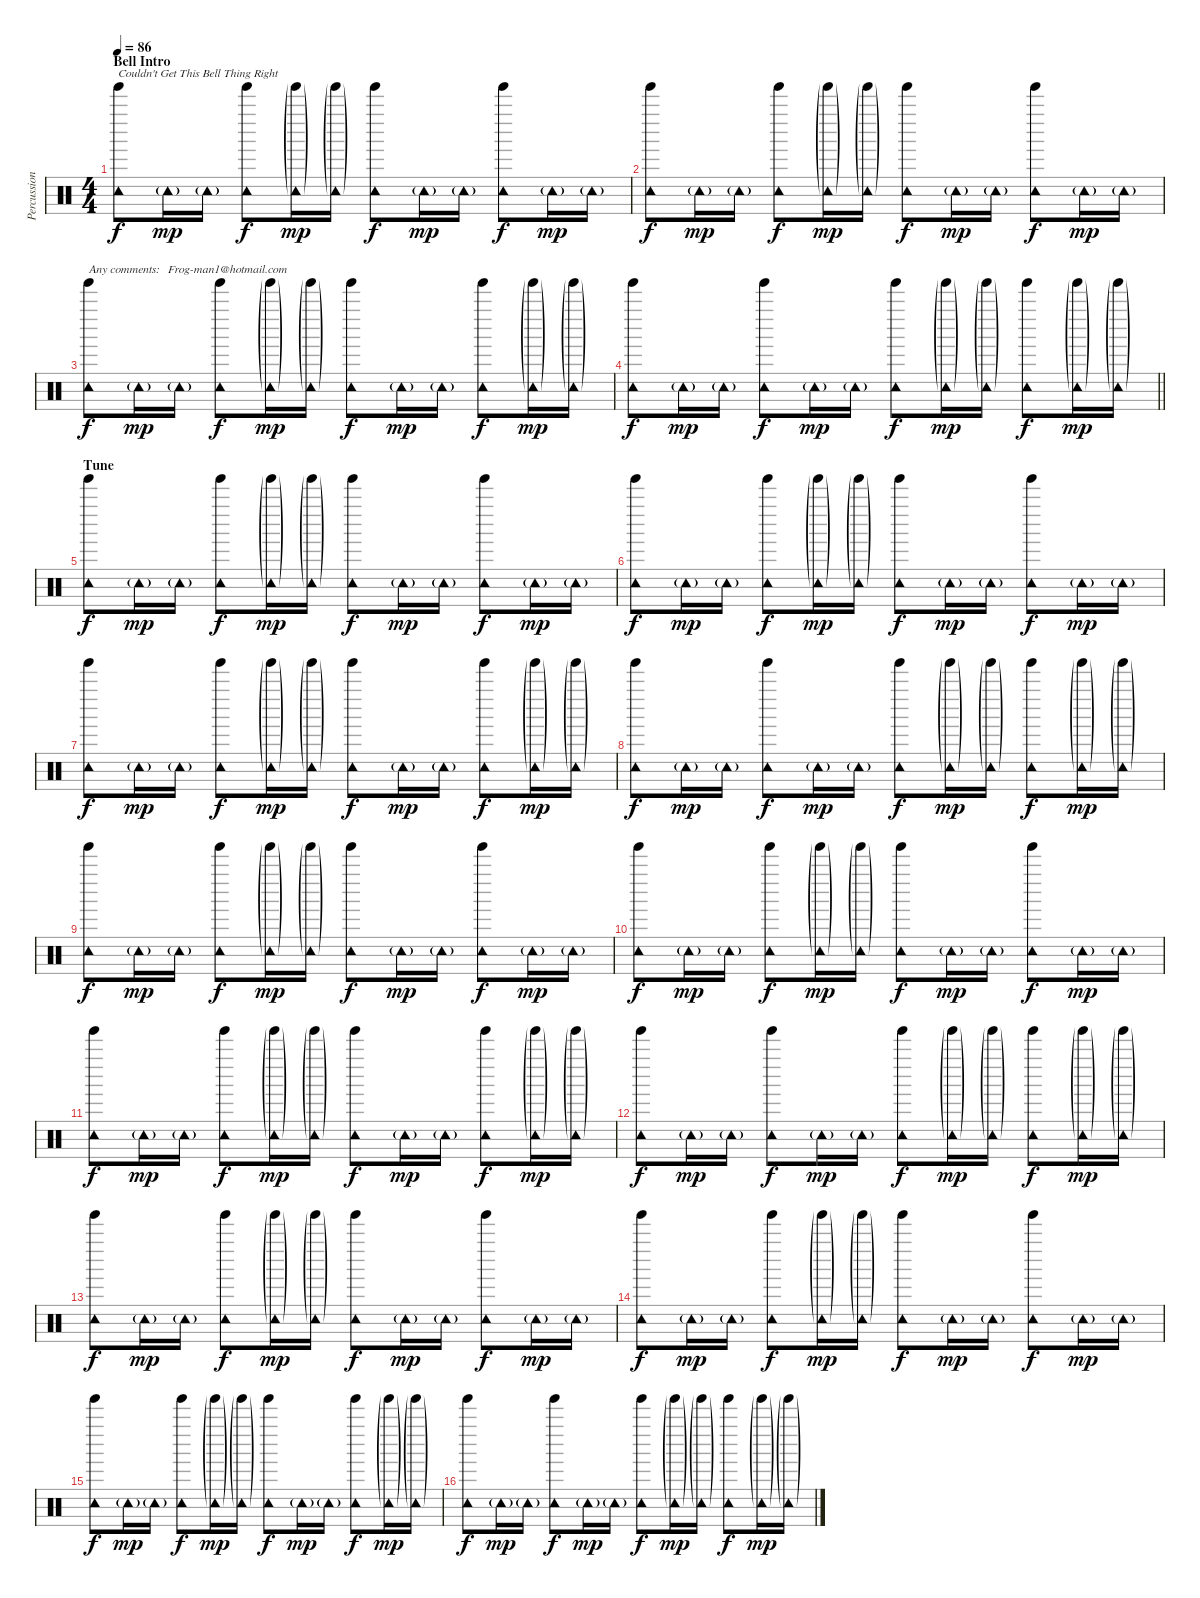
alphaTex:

\track ("Percussion 1" "Percussion") {instrument percussion}
\staff {score}
\articulation defaults
\ts (4 4)
\section ("" "Bell Intro")
\tempo 86
\clef neutral
\ks c
("Tinkle Bell (hit)" "Tambourine (hit)").8{txt "Couldn't Get This Bell Thing Right" dy f} "Tambourine (hit)"{g}.16{dy mp} "Tambourine (hit)"{g}.16 ("Tinkle Bell (hit)" "Tambourine (hit)").8{dy f} ("Tinkle Bell (hit)"{g} "Tambourine (hit)"{g}).16{dy mp} ("Tinkle Bell (hit)"{g} "Tambourine (hit)"{g}).16 ("Tinkle Bell (hit)" "Tambourine (hit)").8{dy f} "Tambourine (hit)"{g}.16{dy mp} "Tambourine (hit)"{g}.16 ("Tinkle Bell (hit)" "Tambourine (hit)").8{dy f} "Tambourine (hit)"{g}.16{dy mp} "Tambourine (hit)"{g}.16 |
("Tinkle Bell (hit)" "Tambourine (hit)").8{dy f} "Tambourine (hit)"{g}.16{dy mp} "Tambourine (hit)"{g}.16 ("Tinkle Bell (hit)" "Tambourine (hit)").8{dy f} ("Tinkle Bell (hit)"{g} "Tambourine (hit)"{g}).16{dy mp} ("Tinkle Bell (hit)"{g} "Tambourine (hit)"{g}).16 ("Tinkle Bell (hit)" "Tambourine (hit)").8{dy f} "Tambourine (hit)"{g}.16{dy mp} "Tambourine (hit)"{g}.16 ("Tinkle Bell (hit)" "Tambourine (hit)").8{dy f} "Tambourine (hit)"{g}.16{dy mp} "Tambourine (hit)"{g}.16 |
("Tinkle Bell (hit)" "Tambourine (hit)").8{txt "Any comments:   Frog-man1@hotmail.com" dy f} "Tambourine (hit)"{g}.16{dy mp} "Tambourine (hit)"{g}.16 ("Tinkle Bell (hit)" "Tambourine (hit)").8{dy f} ("Tinkle Bell (hit)"{g} "Tambourine (hit)"{g}).16{dy mp} ("Tinkle Bell (hit)"{g} "Tambourine (hit)"{g}).16 ("Tinkle Bell (hit)" "Tambourine (hit)").8{dy f} "Tambourine (hit)"{g}.16{dy mp} "Tambourine (hit)"{g}.16 ("Tinkle Bell (hit)" "Tambourine (hit)").8{dy f} ("Tinkle Bell (hit)"{g} "Tambourine (hit)"{g}).16{dy mp} ("Tinkle Bell (hit)"{g} "Tambourine (hit)"{g}).16 |
\barLineRight lightlight
("Tinkle Bell (hit)" "Tambourine (hit)").8{dy f} "Tambourine (hit)"{g}.16{dy mp} "Tambourine (hit)"{g}.16 ("Tinkle Bell (hit)" "Tambourine (hit)").8{dy f} "Tambourine (hit)"{g}.16{dy mp} "Tambourine (hit)"{g}.16 ("Tinkle Bell (hit)" "Tambourine (hit)").8{dy f} ("Tinkle Bell (hit)"{g} "Tambourine (hit)"{g}).16{dy mp} ("Tinkle Bell (hit)"{g} "Tambourine (hit)"{g}).16 ("Tinkle Bell (hit)" "Tambourine (hit)").8{dy f} ("Tinkle Bell (hit)"{g} "Tambourine (hit)"{g}).16{dy mp} ("Tinkle Bell (hit)"{g} "Tambourine (hit)"{g}).16 |
\section ("" "Tune")
("Tinkle Bell (hit)" "Tambourine (hit)").8{dy f} "Tambourine (hit)"{g}.16{dy mp} "Tambourine (hit)"{g}.16 ("Tinkle Bell (hit)" "Tambourine (hit)").8{dy f} ("Tinkle Bell (hit)"{g} "Tambourine (hit)"{g}).16{dy mp} ("Tinkle Bell (hit)"{g} "Tambourine (hit)"{g}).16 ("Tinkle Bell (hit)" "Tambourine (hit)").8{dy f} "Tambourine (hit)"{g}.16{dy mp} "Tambourine (hit)"{g}.16 ("Tinkle Bell (hit)" "Tambourine (hit)").8{dy f} "Tambourine (hit)"{g}.16{dy mp} "Tambourine (hit)"{g}.16 |
("Tinkle Bell (hit)" "Tambourine (hit)").8{dy f} "Tambourine (hit)"{g}.16{dy mp} "Tambourine (hit)"{g}.16 ("Tinkle Bell (hit)" "Tambourine (hit)").8{dy f} ("Tinkle Bell (hit)"{g} "Tambourine (hit)"{g}).16{dy mp} ("Tinkle Bell (hit)"{g} "Tambourine (hit)"{g}).16 ("Tinkle Bell (hit)" "Tambourine (hit)").8{dy f} "Tambourine (hit)"{g}.16{dy mp} "Tambourine (hit)"{g}.16 ("Tinkle Bell (hit)" "Tambourine (hit)").8{dy f} "Tambourine (hit)"{g}.16{dy mp} "Tambourine (hit)"{g}.16 |
("Tinkle Bell (hit)" "Tambourine (hit)").8{dy f} "Tambourine (hit)"{g}.16{dy mp} "Tambourine (hit)"{g}.16 ("Tinkle Bell (hit)" "Tambourine (hit)").8{dy f} ("Tinkle Bell (hit)"{g} "Tambourine (hit)"{g}).16{dy mp} ("Tinkle Bell (hit)"{g} "Tambourine (hit)"{g}).16 ("Tinkle Bell (hit)" "Tambourine (hit)").8{dy f} "Tambourine (hit)"{g}.16{dy mp} "Tambourine (hit)"{g}.16 ("Tinkle Bell (hit)" "Tambourine (hit)").8{dy f} ("Tinkle Bell (hit)"{g} "Tambourine (hit)"{g}).16{dy mp} ("Tinkle Bell (hit)"{g} "Tambourine (hit)"{g}).16 |
("Tinkle Bell (hit)" "Tambourine (hit)").8{dy f} "Tambourine (hit)"{g}.16{dy mp} "Tambourine (hit)"{g}.16 ("Tinkle Bell (hit)" "Tambourine (hit)").8{dy f} "Tambourine (hit)"{g}.16{dy mp} "Tambourine (hit)"{g}.16 ("Tinkle Bell (hit)" "Tambourine (hit)").8{dy f} ("Tinkle Bell (hit)"{g} "Tambourine (hit)"{g}).16{dy mp} ("Tinkle Bell (hit)"{g} "Tambourine (hit)"{g}).16 ("Tinkle Bell (hit)" "Tambourine (hit)").8{dy f} ("Tinkle Bell (hit)"{g} "Tambourine (hit)"{g}).16{dy mp} ("Tinkle Bell (hit)"{g} "Tambourine (hit)"{g}).16 |
("Tinkle Bell (hit)" "Tambourine (hit)").8{dy f} "Tambourine (hit)"{g}.16{dy mp} "Tambourine (hit)"{g}.16 ("Tinkle Bell (hit)" "Tambourine (hit)").8{dy f} ("Tinkle Bell (hit)"{g} "Tambourine (hit)"{g}).16{dy mp} ("Tinkle Bell (hit)"{g} "Tambourine (hit)"{g}).16 ("Tinkle Bell (hit)" "Tambourine (hit)").8{dy f} "Tambourine (hit)"{g}.16{dy mp} "Tambourine (hit)"{g}.16 ("Tinkle Bell (hit)" "Tambourine (hit)").8{dy f} "Tambourine (hit)"{g}.16{dy mp} "Tambourine (hit)"{g}.16 |
("Tinkle Bell (hit)" "Tambourine (hit)").8{dy f} "Tambourine (hit)"{g}.16{dy mp} "Tambourine (hit)"{g}.16 ("Tinkle Bell (hit)" "Tambourine (hit)").8{dy f} ("Tinkle Bell (hit)"{g} "Tambourine (hit)"{g}).16{dy mp} ("Tinkle Bell (hit)"{g} "Tambourine (hit)"{g}).16 ("Tinkle Bell (hit)" "Tambourine (hit)").8{dy f} "Tambourine (hit)"{g}.16{dy mp} "Tambourine (hit)"{g}.16 ("Tinkle Bell (hit)" "Tambourine (hit)").8{dy f} "Tambourine (hit)"{g}.16{dy mp} "Tambourine (hit)"{g}.16 |
("Tinkle Bell (hit)" "Tambourine (hit)").8{dy f} "Tambourine (hit)"{g}.16{dy mp} "Tambourine (hit)"{g}.16 ("Tinkle Bell (hit)" "Tambourine (hit)").8{dy f} ("Tinkle Bell (hit)"{g} "Tambourine (hit)"{g}).16{dy mp} ("Tinkle Bell (hit)"{g} "Tambourine (hit)"{g}).16 ("Tinkle Bell (hit)" "Tambourine (hit)").8{dy f} "Tambourine (hit)"{g}.16{dy mp} "Tambourine (hit)"{g}.16 ("Tinkle Bell (hit)" "Tambourine (hit)").8{dy f} ("Tinkle Bell (hit)"{g} "Tambourine (hit)"{g}).16{dy mp} ("Tinkle Bell (hit)"{g} "Tambourine (hit)"{g}).16 |
("Tinkle Bell (hit)" "Tambourine (hit)").8{dy f} "Tambourine (hit)"{g}.16{dy mp} "Tambourine (hit)"{g}.16 ("Tinkle Bell (hit)" "Tambourine (hit)").8{dy f} "Tambourine (hit)"{g}.16{dy mp} "Tambourine (hit)"{g}.16 ("Tinkle Bell (hit)" "Tambourine (hit)").8{dy f} ("Tinkle Bell (hit)"{g} "Tambourine (hit)"{g}).16{dy mp} ("Tinkle Bell (hit)"{g} "Tambourine (hit)"{g}).16 ("Tinkle Bell (hit)" "Tambourine (hit)").8{dy f} ("Tinkle Bell (hit)"{g} "Tambourine (hit)"{g}).16{dy mp} ("Tinkle Bell (hit)"{g} "Tambourine (hit)"{g}).16 |
("Tinkle Bell (hit)" "Tambourine (hit)").8{dy f} "Tambourine (hit)"{g}.16{dy mp} "Tambourine (hit)"{g}.16 ("Tinkle Bell (hit)" "Tambourine (hit)").8{dy f} ("Tinkle Bell (hit)"{g} "Tambourine (hit)"{g}).16{dy mp} ("Tinkle Bell (hit)"{g} "Tambourine (hit)"{g}).16 ("Tinkle Bell (hit)" "Tambourine (hit)").8{dy f} "Tambourine (hit)"{g}.16{dy mp} "Tambourine (hit)"{g}.16 ("Tinkle Bell (hit)" "Tambourine (hit)").8{dy f} "Tambourine (hit)"{g}.16{dy mp} "Tambourine (hit)"{g}.16 |
("Tinkle Bell (hit)" "Tambourine (hit)").8{dy f} "Tambourine (hit)"{g}.16{dy mp} "Tambourine (hit)"{g}.16 ("Tinkle Bell (hit)" "Tambourine (hit)").8{dy f} ("Tinkle Bell (hit)"{g} "Tambourine (hit)"{g}).16{dy mp} ("Tinkle Bell (hit)"{g} "Tambourine (hit)"{g}).16 ("Tinkle Bell (hit)" "Tambourine (hit)").8{dy f} "Tambourine (hit)"{g}.16{dy mp} "Tambourine (hit)"{g}.16 ("Tinkle Bell (hit)" "Tambourine (hit)").8{dy f} "Tambourine (hit)"{g}.16{dy mp} "Tambourine (hit)"{g}.16 |
("Tinkle Bell (hit)" "Tambourine (hit)").8{dy f} "Tambourine (hit)"{g}.16{dy mp} "Tambourine (hit)"{g}.16 ("Tinkle Bell (hit)" "Tambourine (hit)").8{dy f} ("Tinkle Bell (hit)"{g} "Tambourine (hit)"{g}).16{dy mp} ("Tinkle Bell (hit)"{g} "Tambourine (hit)"{g}).16 ("Tinkle Bell (hit)" "Tambourine (hit)").8{dy f} "Tambourine (hit)"{g}.16{dy mp} "Tambourine (hit)"{g}.16 ("Tinkle Bell (hit)" "Tambourine (hit)").8{dy f} ("Tinkle Bell (hit)"{g} "Tambourine (hit)"{g}).16{dy mp} ("Tinkle Bell (hit)"{g} "Tambourine (hit)"{g}).16 |
("Tinkle Bell (hit)" "Tambourine (hit)").8{dy f} "Tambourine (hit)"{g}.16{dy mp} "Tambourine (hit)"{g}.16 ("Tinkle Bell (hit)" "Tambourine (hit)").8{dy f} "Tambourine (hit)"{g}.16{dy mp} "Tambourine (hit)"{g}.16 ("Tinkle Bell (hit)" "Tambourine (hit)").8{dy f} ("Tinkle Bell (hit)"{g} "Tambourine (hit)"{g}).16{dy mp} ("Tinkle Bell (hit)"{g} "Tambourine (hit)"{g}).16 ("Tinkle Bell (hit)" "Tambourine (hit)").8{dy f} ("Tinkle Bell (hit)"{g} "Tambourine (hit)"{g}).16{dy mp} ("Tinkle Bell (hit)"{g} "Tambourine (hit)"{g}).16
